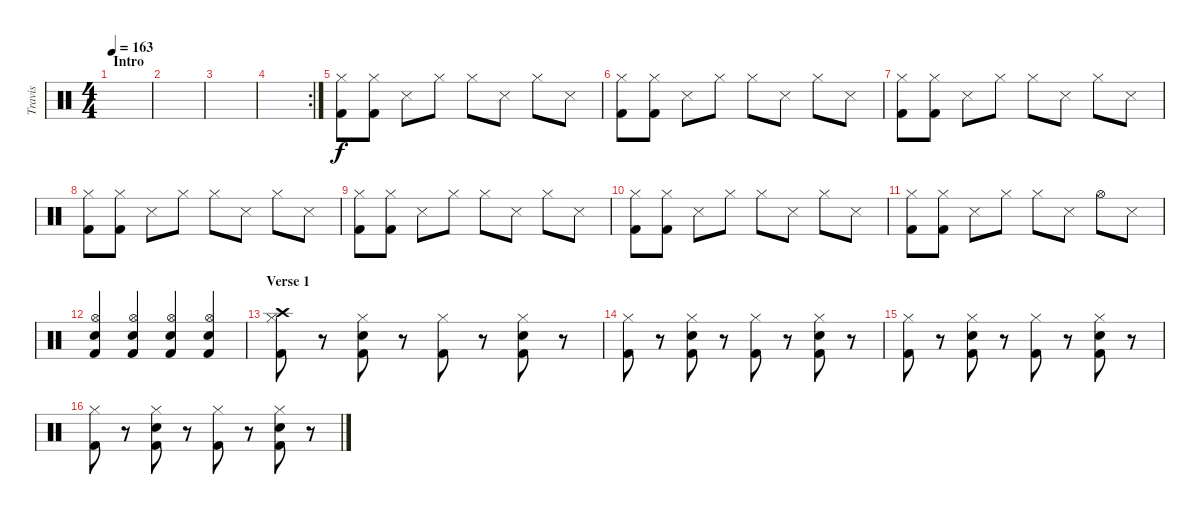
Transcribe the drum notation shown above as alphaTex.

\track ("Travis" "Travis") {instrument percussion}
\staff {score}
\articulation defaults
\ts (4 4)
\section ("" "Intro")
\tempo 163
\clef neutral
\ks c
|
|
|
\rc 2
|
("Hi-Hat (closed)" "Kick (hit) 2").8 ("Hi-Hat (closed)" "Kick (hit) 2").8 "Snare (side stick) 3".8 "Hi-Hat (closed)".8 "Hi-Hat (closed)".8 "Snare (side stick) 3".8 "Hi-Hat (closed)".8 "Snare (side stick) 3".8 |
("Hi-Hat (closed)" "Kick (hit) 2").8 ("Hi-Hat (closed)" "Kick (hit) 2").8 "Snare (side stick) 3".8 "Hi-Hat (closed)".8 "Hi-Hat (closed)".8 "Snare (side stick) 3".8 "Hi-Hat (closed)".8 "Snare (side stick) 3".8 |
("Hi-Hat (closed)" "Kick (hit) 2").8 ("Hi-Hat (closed)" "Kick (hit) 2").8 "Snare (side stick) 3".8 "Hi-Hat (closed)".8 "Hi-Hat (closed)".8 "Snare (side stick) 3".8 "Hi-Hat (closed)".8 "Snare (side stick) 3".8 |
("Hi-Hat (closed)" "Kick (hit) 2").8 ("Hi-Hat (closed)" "Kick (hit) 2").8 "Snare (side stick) 3".8 "Hi-Hat (closed)".8 "Hi-Hat (closed)".8 "Snare (side stick) 3".8 "Hi-Hat (closed)".8 "Snare (side stick) 3".8 |
("Hi-Hat (closed)" "Kick (hit) 2").8 ("Hi-Hat (closed)" "Kick (hit) 2").8 "Snare (side stick) 3".8 "Hi-Hat (closed)".8 "Hi-Hat (closed)".8 "Snare (side stick) 3".8 "Hi-Hat (closed)".8 "Snare (side stick) 3".8 |
("Hi-Hat (closed)" "Kick (hit) 2").8 ("Hi-Hat (closed)" "Kick (hit) 2").8 "Snare (side stick) 3".8 "Hi-Hat (closed)".8 "Hi-Hat (closed)".8 "Snare (side stick) 3".8 "Hi-Hat (closed)".8 "Snare (side stick) 3".8 |
("Hi-Hat (closed)" "Kick (hit) 2").8 ("Hi-Hat (closed)" "Kick (hit) 2").8 "Snare (side stick) 3".8 "Hi-Hat (closed)".8 "Hi-Hat (closed)".8 "Snare (side stick) 3".8 "Hi-Hat (open)".8 "Snare (side stick) 3".8 |
("Hi-Hat (open)" "Electric Snare (hit)" "Kick (hit) 2").4 ("Hi-Hat (open)" "Electric Snare (hit)" "Kick (hit) 2").4 ("Hi-Hat (open)" "Electric Snare (hit)" "Kick (hit) 2").4 ("Hi-Hat (open)" "Electric Snare (hit)" "Kick (hit) 2").4 |
\section ("" "Verse 1")
("Crash high (hit)" "Hi-Hat (closed)" "Kick (hit) 2").8 r.8 ("Hi-Hat (closed)" "Electric Snare (hit)" "Kick (hit) 2").8 r.8 ("Hi-Hat (closed)" "Kick (hit) 2").8 r.8 ("Hi-Hat (closed)" "Electric Snare (hit)" "Kick (hit) 2").8 r.8 |
("Hi-Hat (closed)" "Kick (hit) 2").8 r.8 ("Hi-Hat (closed)" "Electric Snare (hit)" "Kick (hit) 2").8 r.8 ("Hi-Hat (closed)" "Kick (hit) 2").8 r.8 ("Hi-Hat (closed)" "Electric Snare (hit)" "Kick (hit) 2").8 r.8 |
("Hi-Hat (closed)" "Kick (hit) 2").8 r.8 ("Hi-Hat (closed)" "Electric Snare (hit)" "Kick (hit) 2").8 r.8 ("Hi-Hat (closed)" "Kick (hit) 2").8 r.8 ("Hi-Hat (closed)" "Electric Snare (hit)" "Kick (hit) 2").8 r.8 |
("Hi-Hat (closed)" "Kick (hit) 2").8 r.8 ("Hi-Hat (closed)" "Electric Snare (hit)" "Kick (hit) 2").8 r.8 ("Hi-Hat (closed)" "Kick (hit) 2").8 r.8 ("Hi-Hat (closed)" "Electric Snare (hit)" "Kick (hit) 2").8 r.8
